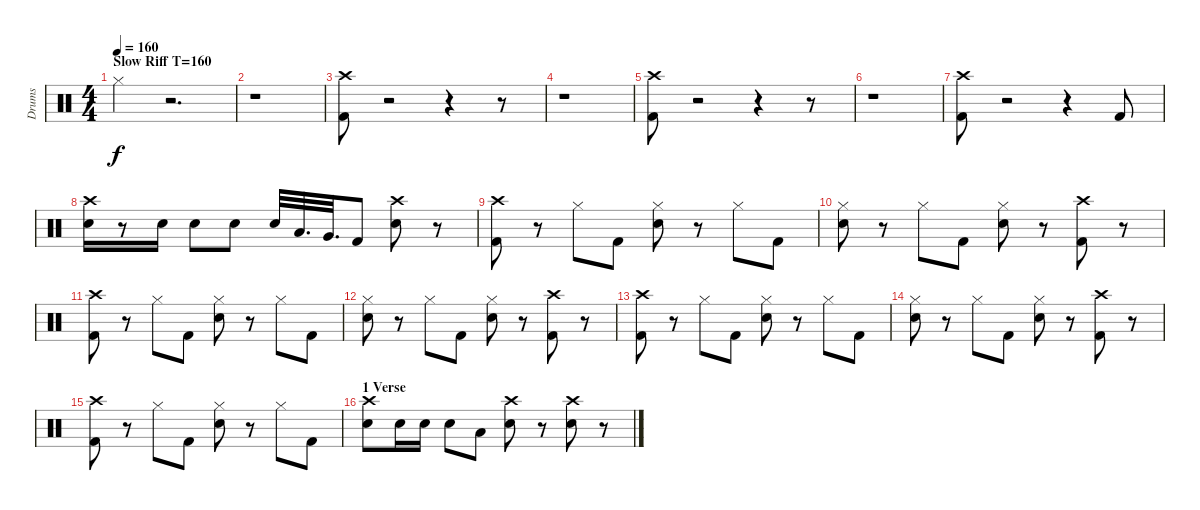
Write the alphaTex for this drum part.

\track ("Drums" "Drums") {instrument percussion}
\staff {score}
\articulation defaults
\ts (4 4)
\section ("" "Slow Riff T=160")
\tempo 160
\clef neutral
\ks c "Hi-Hat (closed)".4{dy f}
r.2{d} |
r.1 |
("Kick (hit) 2" "Crash high (hit)").8 r.2 r.4 r.8 |
r.1 |
("Crash high (hit)" "Kick (hit) 2").8 r.2 r.4 r.8 |
r.1 |
("Crash high (hit)" "Kick (hit) 2").8 r.2 r.4 "Kick (hit) 2".8 |
("Crash high (hit)" "Snare (hit) 2").16 r.8 "Snare (hit) 2".16 "Snare (hit) 2".8 "Snare (hit) 2".8 "Snare (hit) 2".32 "Low Tom (hit)".32{d} "Very Low Tom (hit)".32{d} "Kick (hit) 2".8 ("Crash high (hit)" "Snare (hit) 2").8 r.8 |
("Kick (hit) 2" "Crash high (hit)").8 r.8 "Hi-Hat (closed)".8 "Kick (hit) 2".8 ("Snare (hit) 2" "Hi-Hat (closed)").8 r.8 "Hi-Hat (closed)".8 "Kick (hit) 2".8 |
("Snare (hit) 2" "Hi-Hat (closed)").8 r.8 "Hi-Hat (closed)".8 "Kick (hit) 2".8 ("Snare (hit) 2" "Hi-Hat (closed)").8 r.8 ("Kick (hit) 2" "Crash high (hit)").8 r.8 |
("Kick (hit) 2" "Crash high (hit)").8 r.8 "Hi-Hat (closed)".8 "Kick (hit) 2".8 ("Snare (hit) 2" "Hi-Hat (closed)").8 r.8 "Hi-Hat (closed)".8 "Kick (hit) 2".8 |
("Snare (hit) 2" "Hi-Hat (closed)").8 r.8 "Hi-Hat (closed)".8 "Kick (hit) 2".8 ("Snare (hit) 2" "Hi-Hat (closed)").8 r.8 ("Kick (hit) 2" "Crash high (hit)").8 r.8 |
("Kick (hit) 2" "Crash high (hit)").8 r.8 "Hi-Hat (closed)".8 "Kick (hit) 2".8 ("Snare (hit) 2" "Hi-Hat (closed)").8 r.8 "Hi-Hat (closed)".8 "Kick (hit) 2".8 |
("Snare (hit) 2" "Hi-Hat (closed)").8 r.8 "Hi-Hat (closed)".8 "Kick (hit) 2".8 ("Snare (hit) 2" "Hi-Hat (closed)").8 r.8 ("Kick (hit) 2" "Crash high (hit)").8 r.8 |
("Kick (hit) 2" "Crash high (hit)").8 r.8 "Hi-Hat (closed)".8 "Kick (hit) 2".8 ("Snare (hit) 2" "Hi-Hat (closed)").8 r.8 "Hi-Hat (closed)".8 "Kick (hit) 2".8 |
\section ("" "1 Verse")
("Snare (hit) 2" "Crash high (hit)").8 "Snare (hit) 2".16 "Snare (hit) 2".16 "Snare (hit) 2".8 "Low Tom (hit)".8 ("Crash high (hit)" "Snare (hit) 2").8 r.8 ("Crash high (hit)" "Snare (hit) 2").8 r.8
